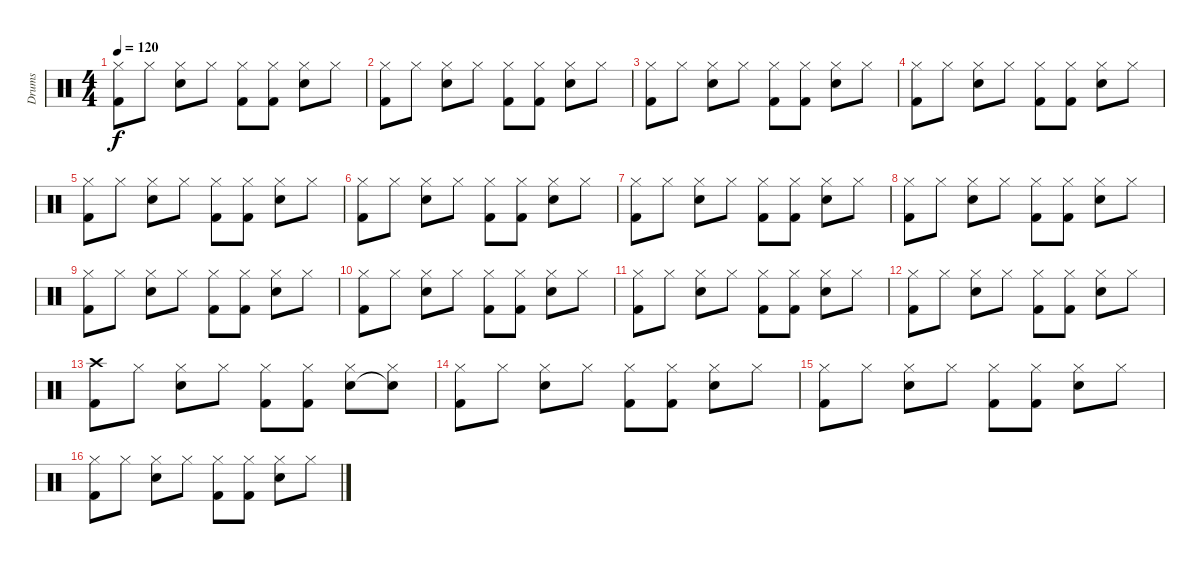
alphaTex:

\track ("Drums" "Drums") {instrument percussion}
\staff {score}
\articulation defaults
\ts (4 4)
\tempo 120
\clef neutral
\ks c
("Hi-Hat (closed)" "Kick (hit) 2").8{dy f} "Hi-Hat (closed)".8 ("Hi-Hat (closed)" "Snare (hit) 2").8 "Hi-Hat (closed)".8 ("Hi-Hat (closed)" "Kick (hit) 2").8 ("Hi-Hat (closed)" "Kick (hit) 2").8 ("Hi-Hat (closed)" "Snare (hit) 2").8 "Hi-Hat (closed)".8 |
("Hi-Hat (closed)" "Kick (hit) 2").8 "Hi-Hat (closed)".8 ("Hi-Hat (closed)" "Snare (hit) 2").8 "Hi-Hat (closed)".8 ("Hi-Hat (closed)" "Kick (hit) 2").8 ("Hi-Hat (closed)" "Kick (hit) 2").8 ("Hi-Hat (closed)" "Snare (hit) 2").8 "Hi-Hat (closed)".8 |
("Hi-Hat (closed)" "Kick (hit) 2").8 "Hi-Hat (closed)".8 ("Hi-Hat (closed)" "Snare (hit) 2").8 "Hi-Hat (closed)".8 ("Hi-Hat (closed)" "Kick (hit) 2").8 ("Hi-Hat (closed)" "Kick (hit) 2").8 ("Hi-Hat (closed)" "Snare (hit) 2").8 "Hi-Hat (closed)".8 |
("Hi-Hat (closed)" "Kick (hit) 2").8 "Hi-Hat (closed)".8 ("Hi-Hat (closed)" "Snare (hit) 2").8 "Hi-Hat (closed)".8 ("Hi-Hat (closed)" "Kick (hit) 2").8 ("Hi-Hat (closed)" "Kick (hit) 2").8 ("Hi-Hat (closed)" "Snare (hit) 2").8 "Hi-Hat (closed)".8 |
("Hi-Hat (closed)" "Kick (hit) 2").8 "Hi-Hat (closed)".8 ("Hi-Hat (closed)" "Snare (hit) 2").8 "Hi-Hat (closed)".8 ("Hi-Hat (closed)" "Kick (hit) 2").8 ("Hi-Hat (closed)" "Kick (hit) 2").8 ("Hi-Hat (closed)" "Snare (hit) 2").8 "Hi-Hat (closed)".8 |
("Hi-Hat (closed)" "Kick (hit) 2").8 "Hi-Hat (closed)".8 ("Hi-Hat (closed)" "Snare (hit) 2").8 "Hi-Hat (closed)".8 ("Hi-Hat (closed)" "Kick (hit) 2").8 ("Hi-Hat (closed)" "Kick (hit) 2").8 ("Hi-Hat (closed)" "Snare (hit) 2").8 "Hi-Hat (closed)".8 |
("Hi-Hat (closed)" "Kick (hit) 2").8 "Hi-Hat (closed)".8 ("Hi-Hat (closed)" "Snare (hit) 2").8 "Hi-Hat (closed)".8 ("Hi-Hat (closed)" "Kick (hit) 2").8 ("Hi-Hat (closed)" "Kick (hit) 2").8 ("Hi-Hat (closed)" "Snare (hit) 2").8 "Hi-Hat (closed)".8 |
("Hi-Hat (closed)" "Kick (hit) 2").8 "Hi-Hat (closed)".8 ("Hi-Hat (closed)" "Snare (hit) 2").8 "Hi-Hat (closed)".8 ("Hi-Hat (closed)" "Kick (hit) 2").8 ("Hi-Hat (closed)" "Kick (hit) 2").8 ("Hi-Hat (closed)" "Snare (hit) 2").8 "Hi-Hat (closed)".8 |
("Hi-Hat (closed)" "Kick (hit) 2").8 "Hi-Hat (closed)".8 ("Hi-Hat (closed)" "Snare (hit) 2").8 "Hi-Hat (closed)".8 ("Hi-Hat (closed)" "Kick (hit) 2").8 ("Hi-Hat (closed)" "Kick (hit) 2").8 ("Hi-Hat (closed)" "Snare (hit) 2").8 "Hi-Hat (closed)".8 |
("Hi-Hat (closed)" "Kick (hit) 2").8 "Hi-Hat (closed)".8 ("Hi-Hat (closed)" "Snare (hit) 2").8 "Hi-Hat (closed)".8 ("Hi-Hat (closed)" "Kick (hit) 2").8 ("Hi-Hat (closed)" "Kick (hit) 2").8 ("Hi-Hat (closed)" "Snare (hit) 2").8 "Hi-Hat (closed)".8 |
("Hi-Hat (closed)" "Kick (hit) 2").8 "Hi-Hat (closed)".8 ("Hi-Hat (closed)" "Snare (hit) 2").8 "Hi-Hat (closed)".8 ("Hi-Hat (closed)" "Kick (hit) 2").8 ("Hi-Hat (closed)" "Kick (hit) 2").8 ("Hi-Hat (closed)" "Snare (hit) 2").8 "Hi-Hat (closed)".8 |
("Hi-Hat (closed)" "Kick (hit) 2").8 "Hi-Hat (closed)".8 ("Hi-Hat (closed)" "Snare (hit) 2").8 "Hi-Hat (closed)".8 ("Hi-Hat (closed)" "Kick (hit) 2").8 ("Hi-Hat (closed)" "Kick (hit) 2").8 ("Hi-Hat (closed)" "Snare (hit) 2").8 "Hi-Hat (closed)".8 |
("Kick (hit) 2" "Crash high (hit)").8 "Hi-Hat (closed)".8 ("Hi-Hat (closed)" "Snare (hit) 2").8 "Hi-Hat (closed)".8 ("Hi-Hat (closed)" "Kick (hit) 2").8 ("Hi-Hat (closed)" "Kick (hit) 2").8 ("Hi-Hat (closed)" "Snare (hit) 2").8 ("Hi-Hat (closed)" "Snare (hit)"{t}).8 |
("Hi-Hat (closed)" "Kick (hit) 2").8 "Hi-Hat (closed)".8 ("Hi-Hat (closed)" "Snare (hit) 2").8 "Hi-Hat (closed)".8 ("Hi-Hat (closed)" "Kick (hit) 2").8 ("Hi-Hat (closed)" "Kick (hit) 2").8 ("Hi-Hat (closed)" "Snare (hit) 2").8 "Hi-Hat (closed)".8 |
("Hi-Hat (closed)" "Kick (hit) 2").8 "Hi-Hat (closed)".8 ("Hi-Hat (closed)" "Snare (hit) 2").8 "Hi-Hat (closed)".8 ("Hi-Hat (closed)" "Kick (hit) 2").8 ("Hi-Hat (closed)" "Kick (hit) 2").8 ("Hi-Hat (closed)" "Snare (hit) 2").8 "Hi-Hat (closed)".8 |
("Hi-Hat (closed)" "Kick (hit) 2").8 "Hi-Hat (closed)".8 ("Hi-Hat (closed)" "Snare (hit) 2").8 "Hi-Hat (closed)".8 ("Hi-Hat (closed)" "Kick (hit) 2").8 ("Hi-Hat (closed)" "Kick (hit) 2").8 ("Hi-Hat (closed)" "Snare (hit) 2").8 "Hi-Hat (closed)".8
